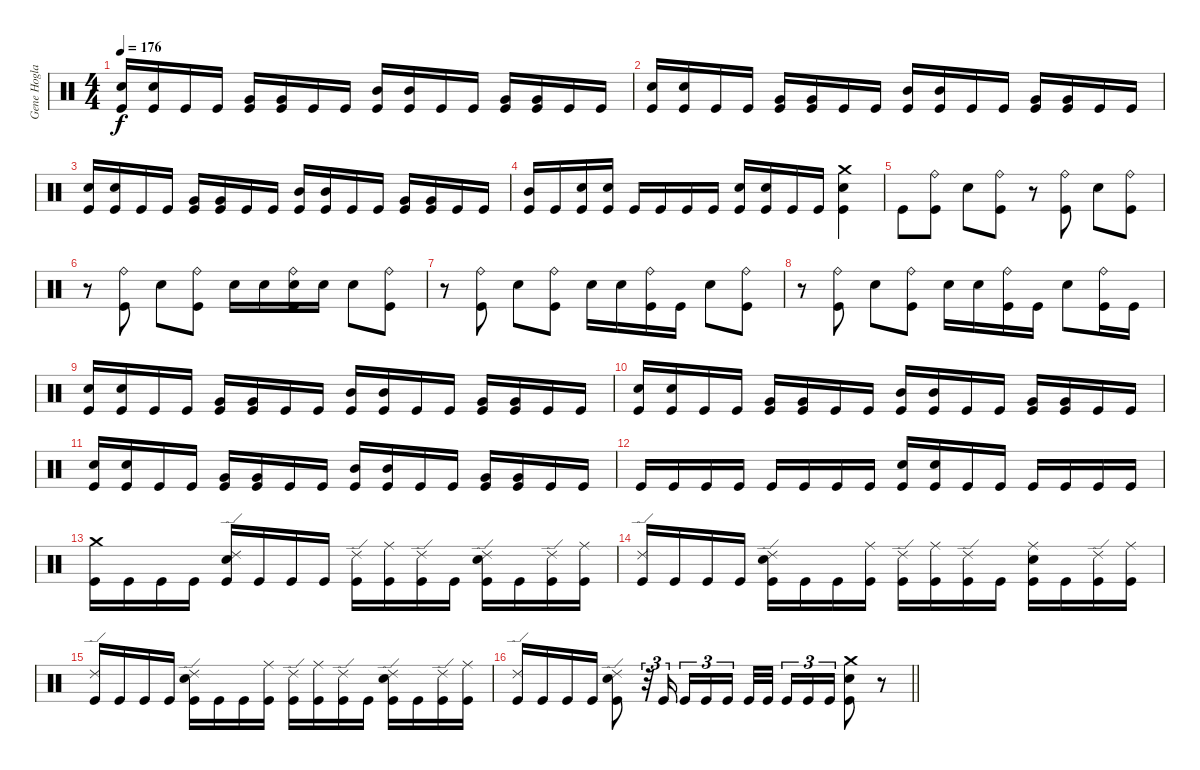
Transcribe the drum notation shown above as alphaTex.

\track ("Gene Hoglan " "Gene Hogla") {instrument percussion}
\staff {score}
\articulation defaults
\ts (4 4)
\tempo 176
\clef neutral
\ks c
("Snare (hit) 2" "Kick (hit)").16{dy f} ("Snare (hit) 2" "Kick (hit)").16 "Kick (hit)".16 "Kick (hit)".16 ("Very Low Tom (hit)" "Kick (hit)").16 ("Very Low Tom (hit)" "Kick (hit)").16 "Kick (hit)".16 "Kick (hit)".16 ("Mid Tom (hit)" "Kick (hit)").16 ("Mid Tom (hit)" "Kick (hit)").16 "Kick (hit)".16 "Kick (hit)".16 ("Very Low Tom (hit)" "Kick (hit)").16 ("Very Low Tom (hit)" "Kick (hit)").16 "Kick (hit)".16 "Kick (hit)".16 |
("Snare (hit) 2" "Kick (hit)").16 ("Snare (hit) 2" "Kick (hit)").16 "Kick (hit)".16 "Kick (hit)".16 ("Very Low Tom (hit)" "Kick (hit)").16 ("Very Low Tom (hit)" "Kick (hit)").16 "Kick (hit)".16 "Kick (hit)".16 ("Mid Tom (hit)" "Kick (hit)").16 ("Mid Tom (hit)" "Kick (hit)").16 "Kick (hit)".16 "Kick (hit)".16 ("Very Low Tom (hit)" "Kick (hit)").16 ("Very Low Tom (hit)" "Kick (hit)").16 "Kick (hit)".16 "Kick (hit)".16 |
("Snare (hit) 2" "Kick (hit)").16 ("Snare (hit) 2" "Kick (hit)").16 "Kick (hit)".16 "Kick (hit)".16 ("Very Low Tom (hit)" "Kick (hit)").16 ("Very Low Tom (hit)" "Kick (hit)").16 "Kick (hit)".16 "Kick (hit)".16 ("Mid Tom (hit)" "Kick (hit)").16 ("Mid Tom (hit)" "Kick (hit)").16 "Kick (hit)".16 "Kick (hit)".16 ("Very Low Tom (hit)" "Kick (hit)").16 ("Very Low Tom (hit)" "Kick (hit)").16 "Kick (hit)".16 "Kick (hit)".16 |
("Mid Tom (hit)" "Kick (hit)").16 "Kick (hit)".16 ("Snare (hit) 2" "Kick (hit)").16 ("Snare (hit) 2" "Kick (hit)").16 "Kick (hit)".16 "Kick (hit)".16 "Kick (hit)".16 "Kick (hit)".16 ("Snare (hit) 2" "Kick (hit)").16 ("Snare (hit) 2" "Kick (hit)").16 "Kick (hit)".16 "Kick (hit)".16 ("Crash medium (hit)" "Snare (hit) 2" "Kick (hit)").4 |
"Kick (hit)".8 ("Ride (bell)" "Kick (hit)").8 "Snare (hit) 2".8 ("Ride (bell)" "Kick (hit)").8 r.8 ("Ride (bell)" "Kick (hit)").8 "Snare (hit) 2".8 ("Ride (bell)" "Kick (hit)").8 |
r.8 ("Ride (bell)" "Kick (hit)").8 "Snare (hit) 2".8 ("Ride (bell)" "Kick (hit)").8 "Snare (hit) 2".16 "Snare (hit) 2".16 ("Ride (bell)" "Snare (hit) 2" "Kick (hit)").16 "Snare (hit) 2".16 "Snare (hit) 2".8 ("Ride (bell)" "Kick (hit)").8 |
r.8 ("Ride (bell)" "Kick (hit)").8 "Snare (hit) 2".8 ("Ride (bell)" "Kick (hit)").8 "Snare (hit) 2".16 "Snare (hit) 2".16 ("Ride (bell)" "Kick (hit)").16 "Kick (hit)".16 "Snare (hit) 2".8 ("Ride (bell)" "Kick (hit)").8 |
r.8 ("Ride (bell)" "Kick (hit)").8 "Snare (hit) 2".8 ("Ride (bell)" "Kick (hit)").8 "Snare (hit) 2".16 "Snare (hit) 2".16 ("Ride (bell)" "Kick (hit)").16 "Kick (hit)".16 "Snare (hit) 2".8 ("Ride (bell)" "Kick (hit)").16 "Kick (hit)".16 |
("Snare (hit) 2" "Kick (hit)").16 ("Snare (hit) 2" "Kick (hit)").16 "Kick (hit)".16 "Kick (hit)".16 ("Very Low Tom (hit)" "Kick (hit)").16 ("Very Low Tom (hit)" "Kick (hit)").16 "Kick (hit)".16 "Kick (hit)".16 ("Mid Tom (hit)" "Kick (hit)").16 ("Mid Tom (hit)" "Kick (hit)").16 "Kick (hit)".16 "Kick (hit)".16 ("Very Low Tom (hit)" "Kick (hit)").16 ("Very Low Tom (hit)" "Kick (hit)").16 "Kick (hit)".16 "Kick (hit)".16 |
("Snare (hit) 2" "Kick (hit)").16 ("Snare (hit) 2" "Kick (hit)").16 "Kick (hit)".16 "Kick (hit)".16 ("Very Low Tom (hit)" "Kick (hit)").16 ("Very Low Tom (hit)" "Kick (hit)").16 "Kick (hit)".16 "Kick (hit)".16 ("Mid Tom (hit)" "Kick (hit)").16 ("Mid Tom (hit)" "Kick (hit)").16 "Kick (hit)".16 "Kick (hit)".16 ("Very Low Tom (hit)" "Kick (hit)").16 ("Very Low Tom (hit)" "Kick (hit)").16 "Kick (hit)".16 "Kick (hit)".16 |
("Snare (hit) 2" "Kick (hit)").16 ("Snare (hit) 2" "Kick (hit)").16 "Kick (hit)".16 "Kick (hit)".16 ("Very Low Tom (hit)" "Kick (hit)").16 ("Very Low Tom (hit)" "Kick (hit)").16 "Kick (hit)".16 "Kick (hit)".16 ("Mid Tom (hit)" "Kick (hit)").16 ("Mid Tom (hit)" "Kick (hit)").16 "Kick (hit)".16 "Kick (hit)".16 ("Very Low Tom (hit)" "Kick (hit)").16 ("Very Low Tom (hit)" "Kick (hit)").16 "Kick (hit)".16 "Kick (hit)".16 |
"Kick (hit)".16 "Kick (hit)".16 "Kick (hit)".16 "Kick (hit)".16 "Kick (hit)".16 "Kick (hit)".16 "Kick (hit)".16 "Kick (hit)".16 ("Snare (hit) 2" "Kick (hit)").16 ("Snare (hit) 2" "Kick (hit)").16 "Kick (hit)".16 "Kick (hit)".16 "Kick (hit)".16 "Kick (hit)".16 "Kick (hit)".16 "Kick (hit)".16 |
("Crash medium (hit)" "Kick (hit)").16 "Kick (hit)".16 "Kick (hit)".16 "Kick (hit)".16 ("Ride (edge) 2" "Snare (hit) 2" "Kick (hit)").16 "Kick (hit)".16 "Kick (hit)".16 "Kick (hit)".16 ("Ride (edge) 2" "Kick (hit)").16 ("Ride (middle)" "Kick (hit)").16 ("Ride (edge) 2" "Kick (hit)").16 "Kick (hit)".16 ("Ride (edge) 2" "Snare (hit) 2" "Kick (hit)").16 "Kick (hit)".16 ("Ride (edge) 2" "Kick (hit)").16 ("Ride (middle)" "Kick (hit)").16 |
("Ride (edge) 2" "Kick (hit)").16 "Kick (hit)".16 "Kick (hit)".16 "Kick (hit)".16 ("Ride (edge) 2" "Snare (hit) 2" "Kick (hit)").16 "Kick (hit)".16 "Kick (hit)".16 ("Ride (middle)" "Kick (hit)").16 ("Ride (edge) 2" "Kick (hit)").16 ("Ride (middle)" "Kick (hit)").16 ("Ride (edge) 2" "Kick (hit)").16 "Kick (hit)".16 ("Ride (middle)" "Snare (hit) 2" "Kick (hit)").16 "Kick (hit)".16 ("Ride (edge) 2" "Kick (hit)").16 ("Ride (middle)" "Kick (hit)").16 |
("Ride (edge) 2" "Kick (hit)").16 "Kick (hit)".16 "Kick (hit)".16 "Kick (hit)".16 ("Ride (edge) 2" "Snare (hit) 2" "Kick (hit)").16 "Kick (hit)".16 "Kick (hit)".16 ("Ride (middle)" "Kick (hit)").16 ("Ride (edge) 2" "Kick (hit)").16 ("Ride (middle)" "Kick (hit)").16 ("Ride (edge) 2" "Kick (hit)").16 "Kick (hit)".16 ("Ride (edge) 2" "Snare (hit) 2" "Kick (hit)").16 "Kick (hit)".16 ("Ride (edge) 2" "Kick (hit)").16 ("Ride (middle)" "Kick (hit)").16 |
\barLineRight lightlight
("Ride (edge) 2" "Kick (hit)").16 "Kick (hit)".16 "Kick (hit)".16 "Kick (hit)".16 ("Ride (edge) 2" "Snare (hit) 2" "Kick (hit)").8 r.32{tu (3 2)} "Kick (hit)".16{tu (3 2)} "Kick (hit)".16{tu (3 2)} "Kick (hit)".16{tu (3 2)} "Kick (hit)".16{tu (3 2)} "Kick (hit)".32 "Kick (hit)".32 "Kick (hit)".16{tu (3 2)} "Kick (hit)".16{tu (3 2)} "Kick (hit)".16{tu (3 2)} ("Crash medium (hit)" "Snare (hit) 2" "Kick (hit)").8 r.8
